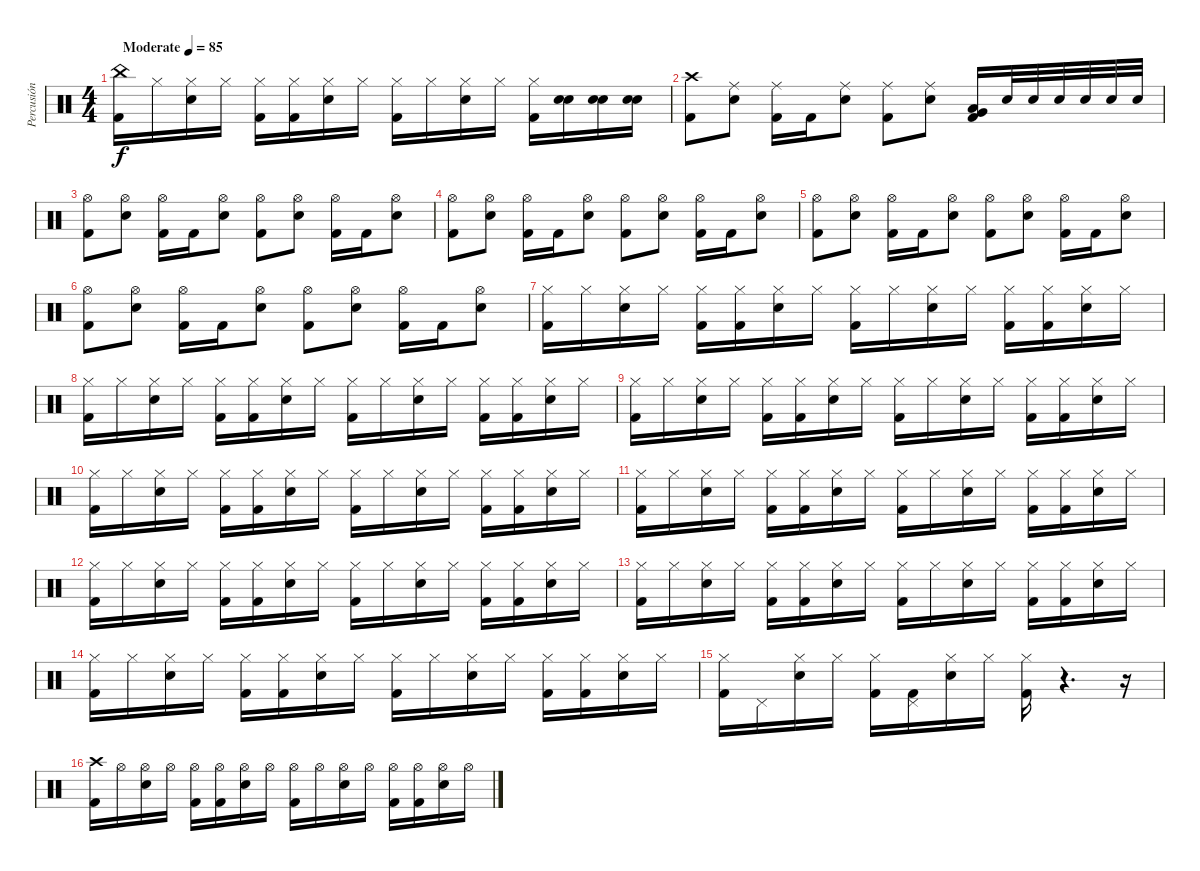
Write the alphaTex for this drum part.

\track ("Percusión" "Percusión") {instrument percussion}
\staff {score}
\articulation defaults
\ts (4 4)
\tempo (85 "Moderate")
\clef neutral
\ks c
("China (hit)" "Kick (hit) 2").16{dy f} "Hi-Hat (closed)".16 ("Hi-Hat (closed)" "Electric Snare (hit)").16 "Hi-Hat (closed)".16 ("Hi-Hat (closed)" "Kick (hit) 2").16 ("Hi-Hat (closed)" "Kick (hit) 2").16 ("Hi-Hat (closed)" "Electric Snare (hit)").16 "Hi-Hat (closed)".16 ("Hi-Hat (closed)" "Kick (hit) 2").16 "Hi-Hat (closed)".16 ("Hi-Hat (closed)" "Electric Snare (hit)").16 "Hi-Hat (closed)".16 ("Hi-Hat (closed)" "Kick (hit) 2").16 ("Electric Snare (hit)" "Snare (hit) 2").16 ("Electric Snare (hit)" "Snare (hit) 2").16 ("Electric Snare (hit)" "Snare (hit) 2").16 |
("Crash high (hit)" "Kick (hit) 2").8 ("Ride (middle)" "Electric Snare (hit)").8 ("Ride (middle)" "Kick (hit) 2").16 "Kick (hit) 2".16 ("Ride (middle)" "Electric Snare (hit)").8 ("Ride (middle)" "Kick (hit) 2").8 ("Ride (middle)" "Electric Snare (hit)").8 ("Low Floor Tom (hit)" "Very Low Tom (hit)" "Kick (hit) 2").16 "Electric Snare (hit)".32 "Electric Snare (hit)".32 "Electric Snare (hit)".32 "Electric Snare (hit)".32 "Electric Snare (hit)".32 "Electric Snare (hit)".32 |
("Hi-Hat (open)" "Kick (hit) 2").8 ("Hi-Hat (open)" "Electric Snare (hit)").8 ("Hi-Hat (open)" "Kick (hit) 2").16 "Kick (hit) 2".16 ("Hi-Hat (open)" "Electric Snare (hit)").8 ("Hi-Hat (open)" "Kick (hit) 2").8 ("Hi-Hat (open)" "Electric Snare (hit)").8 ("Hi-Hat (open)" "Kick (hit) 2").16 "Kick (hit) 2".16 ("Hi-Hat (open)" "Electric Snare (hit)").8 |
("Hi-Hat (open)" "Kick (hit) 2").8 ("Hi-Hat (open)" "Electric Snare (hit)").8 ("Hi-Hat (open)" "Kick (hit) 2").16 "Kick (hit) 2".16 ("Hi-Hat (open)" "Electric Snare (hit)").8 ("Hi-Hat (open)" "Kick (hit) 2").8 ("Hi-Hat (open)" "Electric Snare (hit)").8 ("Hi-Hat (open)" "Kick (hit) 2").16 "Kick (hit) 2".16 ("Hi-Hat (open)" "Electric Snare (hit)").8 |
("Hi-Hat (open)" "Kick (hit) 2").8 ("Hi-Hat (open)" "Electric Snare (hit)").8 ("Hi-Hat (open)" "Kick (hit) 2").16 "Kick (hit) 2".16 ("Hi-Hat (open)" "Electric Snare (hit)").8 ("Hi-Hat (open)" "Kick (hit) 2").8 ("Hi-Hat (open)" "Electric Snare (hit)").8 ("Hi-Hat (open)" "Kick (hit) 2").16 "Kick (hit) 2".16 ("Hi-Hat (open)" "Electric Snare (hit)").8 |
("Hi-Hat (open)" "Kick (hit) 2").8 ("Hi-Hat (open)" "Electric Snare (hit)").8 ("Hi-Hat (open)" "Kick (hit) 2").16 "Kick (hit) 2".16 ("Hi-Hat (open)" "Electric Snare (hit)").8 ("Hi-Hat (open)" "Kick (hit) 2").8 ("Hi-Hat (open)" "Electric Snare (hit)").8 ("Hi-Hat (open)" "Kick (hit) 2").16 "Kick (hit) 2".16 ("Hi-Hat (open)" "Electric Snare (hit)").8 |
("Hi-Hat (closed)" "Kick (hit) 2").16 "Hi-Hat (closed)".16 ("Hi-Hat (closed)" "Electric Snare (hit)").16 "Hi-Hat (closed)".16 ("Hi-Hat (closed)" "Kick (hit) 2").16 ("Hi-Hat (closed)" "Kick (hit) 2").16 ("Hi-Hat (closed)" "Electric Snare (hit)").16 "Hi-Hat (closed)".16 ("Hi-Hat (closed)" "Kick (hit) 2").16 "Hi-Hat (closed)".16 ("Hi-Hat (closed)" "Electric Snare (hit)").16 "Hi-Hat (closed)".16 ("Hi-Hat (closed)" "Kick (hit) 2").16 ("Hi-Hat (closed)" "Kick (hit) 2").16 ("Hi-Hat (closed)" "Electric Snare (hit)").16 "Hi-Hat (closed)".16 |
("Hi-Hat (closed)" "Kick (hit) 2").16 "Hi-Hat (closed)".16 ("Hi-Hat (closed)" "Electric Snare (hit)").16 "Hi-Hat (closed)".16 ("Hi-Hat (closed)" "Kick (hit) 2").16 ("Hi-Hat (closed)" "Kick (hit) 2").16 ("Hi-Hat (closed)" "Electric Snare (hit)").16 "Hi-Hat (closed)".16 ("Hi-Hat (closed)" "Kick (hit) 2").16 "Hi-Hat (closed)".16 ("Hi-Hat (closed)" "Electric Snare (hit)").16 "Hi-Hat (closed)".16 ("Hi-Hat (closed)" "Kick (hit) 2").16 ("Hi-Hat (closed)" "Kick (hit) 2").16 ("Hi-Hat (closed)" "Electric Snare (hit)").16 "Hi-Hat (closed)".16 |
("Hi-Hat (closed)" "Kick (hit) 2").16 "Hi-Hat (closed)".16 ("Hi-Hat (closed)" "Electric Snare (hit)").16 "Hi-Hat (closed)".16 ("Hi-Hat (closed)" "Kick (hit) 2").16 ("Hi-Hat (closed)" "Kick (hit) 2").16 ("Hi-Hat (closed)" "Electric Snare (hit)").16 "Hi-Hat (closed)".16 ("Hi-Hat (closed)" "Kick (hit) 2").16 "Hi-Hat (closed)".16 ("Hi-Hat (closed)" "Electric Snare (hit)").16 "Hi-Hat (closed)".16 ("Hi-Hat (closed)" "Kick (hit) 2").16 ("Hi-Hat (closed)" "Kick (hit) 2").16 ("Hi-Hat (closed)" "Electric Snare (hit)").16 "Hi-Hat (closed)".16 |
("Hi-Hat (closed)" "Kick (hit) 2").16 "Hi-Hat (closed)".16 ("Hi-Hat (closed)" "Electric Snare (hit)").16 "Hi-Hat (closed)".16 ("Hi-Hat (closed)" "Kick (hit) 2").16 ("Hi-Hat (closed)" "Kick (hit) 2").16 ("Hi-Hat (closed)" "Electric Snare (hit)").16 "Hi-Hat (closed)".16 ("Hi-Hat (closed)" "Kick (hit) 2").16 "Hi-Hat (closed)".16 ("Hi-Hat (closed)" "Electric Snare (hit)").16 "Hi-Hat (closed)".16 ("Hi-Hat (closed)" "Kick (hit) 2").16 ("Hi-Hat (closed)" "Kick (hit) 2").16 ("Hi-Hat (closed)" "Electric Snare (hit)").16 "Hi-Hat (closed)".16 |
("Hi-Hat (closed)" "Kick (hit) 2").16 "Hi-Hat (closed)".16 ("Hi-Hat (closed)" "Electric Snare (hit)").16 "Hi-Hat (closed)".16 ("Hi-Hat (closed)" "Kick (hit) 2").16 ("Hi-Hat (closed)" "Kick (hit) 2").16 ("Hi-Hat (closed)" "Electric Snare (hit)").16 "Hi-Hat (closed)".16 ("Hi-Hat (closed)" "Kick (hit) 2").16 "Hi-Hat (closed)".16 ("Hi-Hat (closed)" "Electric Snare (hit)").16 "Hi-Hat (closed)".16 ("Hi-Hat (closed)" "Kick (hit) 2").16 ("Hi-Hat (closed)" "Kick (hit) 2").16 ("Hi-Hat (closed)" "Electric Snare (hit)").16 "Hi-Hat (closed)".16 |
("Hi-Hat (closed)" "Kick (hit) 2").16 "Hi-Hat (closed)".16 ("Hi-Hat (closed)" "Electric Snare (hit)").16 "Hi-Hat (closed)".16 ("Hi-Hat (closed)" "Kick (hit) 2").16 ("Hi-Hat (closed)" "Kick (hit) 2").16 ("Hi-Hat (closed)" "Electric Snare (hit)").16 "Hi-Hat (closed)".16 ("Hi-Hat (closed)" "Kick (hit) 2").16 "Hi-Hat (closed)".16 ("Hi-Hat (closed)" "Electric Snare (hit)").16 "Hi-Hat (closed)".16 ("Hi-Hat (closed)" "Kick (hit) 2").16 ("Hi-Hat (closed)" "Kick (hit) 2").16 ("Hi-Hat (closed)" "Electric Snare (hit)").16 "Hi-Hat (closed)".16 |
("Hi-Hat (closed)" "Kick (hit) 2").16 "Hi-Hat (closed)".16 ("Hi-Hat (closed)" "Electric Snare (hit)").16 "Hi-Hat (closed)".16 ("Hi-Hat (closed)" "Kick (hit) 2").16 ("Hi-Hat (closed)" "Kick (hit) 2").16 ("Hi-Hat (closed)" "Electric Snare (hit)").16 "Hi-Hat (closed)".16 ("Hi-Hat (closed)" "Kick (hit) 2").16 "Hi-Hat (closed)".16 ("Hi-Hat (closed)" "Electric Snare (hit)").16 "Hi-Hat (closed)".16 ("Hi-Hat (closed)" "Kick (hit) 2").16 ("Hi-Hat (closed)" "Kick (hit) 2").16 ("Hi-Hat (closed)" "Electric Snare (hit)").16 "Hi-Hat (closed)".16 |
("Hi-Hat (closed)" "Kick (hit) 2").16 "Hi-Hat (closed)".16 ("Hi-Hat (closed)" "Electric Snare (hit)").16 "Hi-Hat (closed)".16 ("Hi-Hat (closed)" "Kick (hit) 2").16 ("Hi-Hat (closed)" "Kick (hit) 2").16 ("Hi-Hat (closed)" "Electric Snare (hit)").16 "Hi-Hat (closed)".16 ("Hi-Hat (closed)" "Kick (hit) 2").16 "Hi-Hat (closed)".16 ("Hi-Hat (closed)" "Electric Snare (hit)").16 "Hi-Hat (closed)".16 ("Hi-Hat (closed)" "Kick (hit) 2").16 ("Hi-Hat (closed)" "Kick (hit) 2").16 ("Hi-Hat (closed)" "Electric Snare (hit)").16 "Hi-Hat (closed)".16 |
("Hi-Hat (closed)" "Kick (hit) 2").16 "Pedal Hi-Hat (hit)".16 ("Hi-Hat (closed)" "Electric Snare (hit)").16 "Hi-Hat (closed)".16 ("Hi-Hat (closed)" "Kick (hit) 2").16 ("Pedal Hi-Hat (hit)" "Kick (hit) 2").16 ("Hi-Hat (closed)" "Electric Snare (hit)").16 "Hi-Hat (closed)".16 ("Hi-Hat (closed)" "Kick (hit) 2").16 r.4{d} r.16 |
("Crash high (hit)" "Kick (hit) 2").16 "Hi-Hat (open)".16 ("Hi-Hat (open)" "Electric Snare (hit)").16 "Hi-Hat (open)".16 ("Hi-Hat (open)" "Kick (hit) 2").16 ("Hi-Hat (open)" "Kick (hit) 2").16 ("Hi-Hat (open)" "Electric Snare (hit)").16 "Hi-Hat (open)".16 ("Hi-Hat (open)" "Kick (hit) 2").16 "Hi-Hat (open)".16 ("Hi-Hat (open)" "Electric Snare (hit)").16 "Hi-Hat (open)".16 ("Hi-Hat (open)" "Kick (hit) 2").16 ("Hi-Hat (open)" "Kick (hit) 2").16 ("Hi-Hat (open)" "Electric Snare (hit)").16 "Hi-Hat (open)".16
